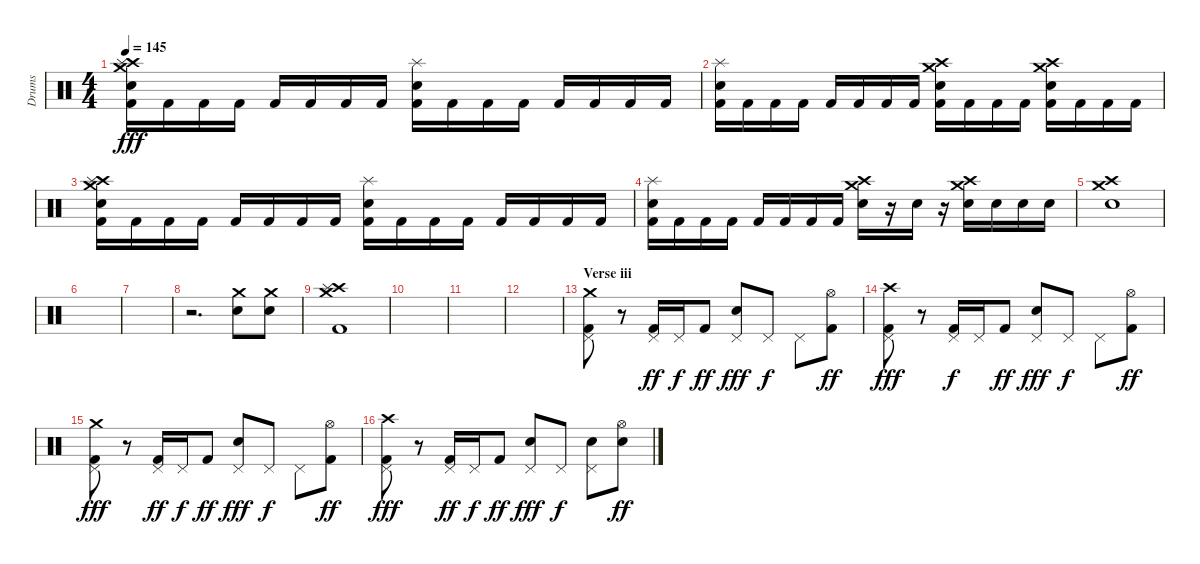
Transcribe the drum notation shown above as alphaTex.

\track ("Drums" "Drums") {instrument percussion}
\staff {score}
\articulation defaults
\ts (4 4)
\tempo 145
\clef neutral
\ks c
("Crash high (hit)" "Crash medium (hit)" "Splash (hit)" "Snare (hit) 2" "Kick (hit) 2").16{dy fff} "Kick (hit) 2".16 "Kick (hit) 2".16 "Kick (hit) 2".16 "Kick (hit) 2".16 "Kick (hit) 2".16 "Kick (hit) 2".16 "Kick (hit) 2".16 ("Splash (hit)" "Snare (hit) 2" "Kick (hit) 2").16 "Kick (hit) 2".16 "Kick (hit) 2".16 "Kick (hit) 2".16 "Kick (hit) 2".16 "Kick (hit) 2".16 "Kick (hit) 2".16 "Kick (hit) 2".16 |
("Splash (hit)" "Snare (hit) 2" "Kick (hit) 2").16 "Kick (hit) 2".16 "Kick (hit) 2".16 "Kick (hit) 2".16 "Kick (hit) 2".16 "Kick (hit) 2".16 "Kick (hit) 2".16 "Kick (hit) 2".16 ("Crash high (hit)" "Crash medium (hit)" "Snare (hit) 2" "Kick (hit) 2").16 "Kick (hit) 2".16 "Kick (hit) 2".16 "Kick (hit) 2".16 ("Crash high (hit)" "Crash medium (hit)" "Snare (hit) 2" "Kick (hit) 2").16 "Kick (hit) 2".16 "Kick (hit) 2".16 "Kick (hit) 2".16 |
("Crash high (hit)" "Crash medium (hit)" "Splash (hit)" "Snare (hit) 2" "Kick (hit) 2").16 "Kick (hit) 2".16 "Kick (hit) 2".16 "Kick (hit) 2".16 "Kick (hit) 2".16 "Kick (hit) 2".16 "Kick (hit) 2".16 "Kick (hit) 2".16 ("Splash (hit)" "Snare (hit) 2" "Kick (hit) 2").16 "Kick (hit) 2".16 "Kick (hit) 2".16 "Kick (hit) 2".16 "Kick (hit) 2".16 "Kick (hit) 2".16 "Kick (hit) 2".16 "Kick (hit) 2".16 |
("Splash (hit)" "Snare (hit) 2" "Kick (hit) 2").16 "Kick (hit) 2".16 "Kick (hit) 2".16 "Kick (hit) 2".16 "Kick (hit) 2".16 "Kick (hit) 2".16 "Kick (hit) 2".16 "Kick (hit) 2".16 ("Crash high (hit)" "Crash medium (hit)" "Snare (hit) 2").16 r.16 "Snare (hit) 2".16 r.16 ("Crash high (hit)" "Crash medium (hit)" "Snare (hit) 2").16 "Snare (hit) 2".16 "Snare (hit) 2".16 "Snare (hit) 2".16 |
("Crash high (hit)" "Crash medium (hit)" "Snare (hit) 2").1 |
|
|
r.2{d} ("Crash medium (hit)" "Snare (hit) 2").8 ("Crash medium (hit)" "Snare (hit) 2").8 |
("Crash high (hit)" "Crash medium (hit)" "Splash (hit)" "Kick (hit) 2").1 |
|
|
|
\section ("" "Verse iii")
("Crash medium (hit)" "Pedal Hi-Hat (hit)" "Kick (hit) 2").8 r.8 ("Pedal Hi-Hat (hit)" "Kick (hit) 2").16{dy ff} "Pedal Hi-Hat (hit)".16{dy f} "Kick (hit) 2".8{dy ff} ("Pedal Hi-Hat (hit)" "Snare (hit) 2").8{dy fff} "Pedal Hi-Hat (hit)".8{dy f} "Pedal Hi-Hat (hit)".8 ("Hi-Hat (open)" "Kick (hit) 2").8{dy ff} |
("Crash high (hit)" "Pedal Hi-Hat (hit)" "Kick (hit) 2").8{dy fff} r.8 ("Pedal Hi-Hat (hit)" "Kick (hit) 2").16{dy f} "Pedal Hi-Hat (hit)".16 "Kick (hit) 2".8{dy ff} ("Pedal Hi-Hat (hit)" "Snare (hit) 2").8{dy fff} "Pedal Hi-Hat (hit)".8{dy f} "Pedal Hi-Hat (hit)".8 ("Hi-Hat (open)" "Kick (hit) 2").8{dy ff} |
("Crash medium (hit)" "Pedal Hi-Hat (hit)" "Kick (hit) 2").8{dy fff} r.8 ("Pedal Hi-Hat (hit)" "Kick (hit) 2").16{dy ff} "Pedal Hi-Hat (hit)".16{dy f} "Kick (hit) 2".8{dy ff} ("Pedal Hi-Hat (hit)" "Snare (hit) 2").8{dy fff} "Pedal Hi-Hat (hit)".8{dy f} "Pedal Hi-Hat (hit)".8 ("Hi-Hat (open)" "Kick (hit) 2").8{dy ff} |
("Crash high (hit)" "Pedal Hi-Hat (hit)" "Kick (hit) 2").8{dy fff} r.8 ("Pedal Hi-Hat (hit)" "Kick (hit) 2").16{dy ff} "Pedal Hi-Hat (hit)".16{dy f} "Kick (hit) 2".8{dy ff} ("Pedal Hi-Hat (hit)" "Snare (hit) 2").8{dy fff} "Pedal Hi-Hat (hit)".8{dy f} ("Pedal Hi-Hat (hit)" "Snare (hit) 2").8 ("Hi-Hat (open)" "Snare (hit) 2").8{dy ff}
